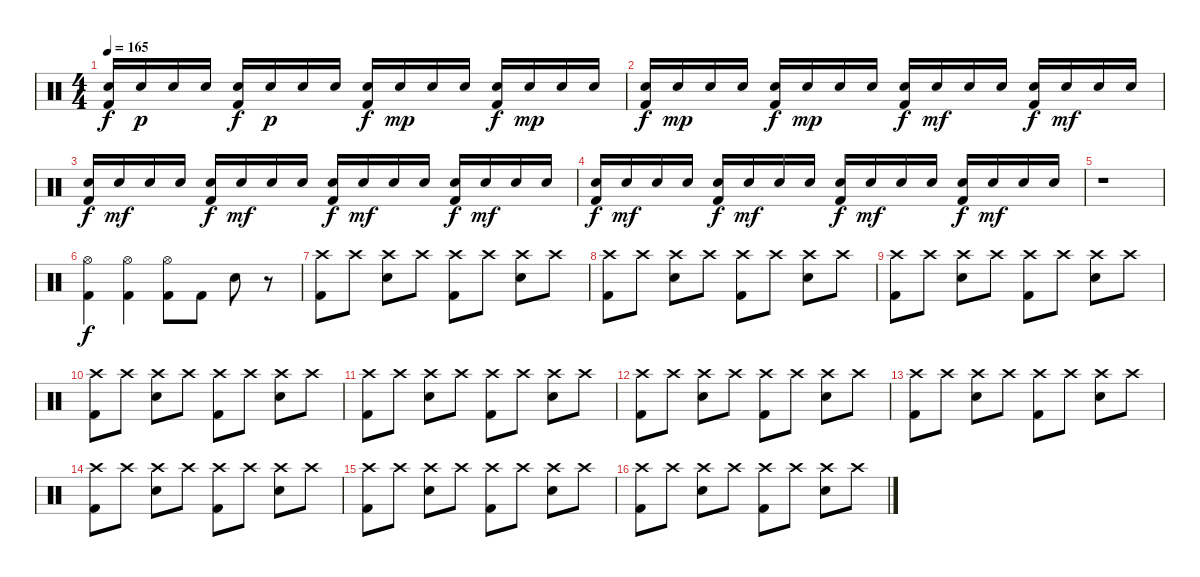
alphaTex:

\track "" {instrument percussion}
\staff {score}
\articulation defaults
\ts (4 4)
\tempo 165
\clef neutral
\ks c
("Electric Snare (hit)" "Kick (hit) 2").16{dy f} "Electric Snare (hit)".16{dy p} "Electric Snare (hit)".16 "Electric Snare (hit)".16 ("Electric Snare (hit)" "Kick (hit) 2").16{dy f} "Electric Snare (hit)".16{dy p} "Electric Snare (hit)".16 "Electric Snare (hit)".16 ("Electric Snare (hit)" "Kick (hit) 2").16{dy f} "Electric Snare (hit)".16{dy mp} "Electric Snare (hit)".16 "Electric Snare (hit)".16 ("Electric Snare (hit)" "Kick (hit) 2").16{dy f} "Electric Snare (hit)".16{dy mp} "Electric Snare (hit)".16 "Electric Snare (hit)".16 |
("Electric Snare (hit)" "Kick (hit) 2").16{dy f} "Electric Snare (hit)".16{dy mp} "Electric Snare (hit)".16 "Electric Snare (hit)".16 ("Electric Snare (hit)" "Kick (hit) 2").16{dy f} "Electric Snare (hit)".16{dy mp} "Electric Snare (hit)".16 "Electric Snare (hit)".16 ("Electric Snare (hit)" "Kick (hit) 2").16{dy f} "Electric Snare (hit)".16{dy mf} "Electric Snare (hit)".16 "Electric Snare (hit)".16 ("Electric Snare (hit)" "Kick (hit) 2").16{dy f} "Electric Snare (hit)".16{dy mf} "Electric Snare (hit)".16 "Electric Snare (hit)".16 |
("Electric Snare (hit)" "Kick (hit) 2").16{dy f} "Electric Snare (hit)".16{dy mf} "Electric Snare (hit)".16 "Electric Snare (hit)".16 ("Electric Snare (hit)" "Kick (hit) 2").16{dy f} "Electric Snare (hit)".16{dy mf} "Electric Snare (hit)".16 "Electric Snare (hit)".16 ("Electric Snare (hit)" "Kick (hit) 2").16{dy f} "Electric Snare (hit)".16{dy mf} "Electric Snare (hit)".16 "Electric Snare (hit)".16 ("Electric Snare (hit)" "Kick (hit) 2").16{dy f} "Electric Snare (hit)".16{dy mf} "Electric Snare (hit)".16 "Electric Snare (hit)".16 |
("Electric Snare (hit)" "Kick (hit) 2").16{dy f} "Electric Snare (hit)".16{dy mf} "Electric Snare (hit)".16 "Electric Snare (hit)".16 ("Electric Snare (hit)" "Kick (hit) 2").16{dy f} "Electric Snare (hit)".16{dy mf} "Electric Snare (hit)".16 "Electric Snare (hit)".16 ("Electric Snare (hit)" "Kick (hit) 2").16{dy f} "Electric Snare (hit)".16{dy mf} "Electric Snare (hit)".16 "Electric Snare (hit)".16 ("Electric Snare (hit)" "Kick (hit) 2").16{dy f} "Electric Snare (hit)".16{dy mf} "Electric Snare (hit)".16 "Electric Snare (hit)".16 |
r.1 |
("Hi-Hat (open)" "Kick (hit) 2").4{dy f} ("Hi-Hat (open)" "Kick (hit) 2").4 ("Hi-Hat (open)" "Kick (hit) 2").8 "Kick (hit) 2".8 "Electric Snare (hit)".8 r.8 |
("Crash high (hit)" "Kick (hit) 2").8 "Crash high (hit)".8 ("Crash high (hit)" "Electric Snare (hit)").8 "Crash high (hit)".8 ("Crash high (hit)" "Kick (hit) 2").8 "Crash high (hit)".8 ("Crash high (hit)" "Electric Snare (hit)").8 "Crash high (hit)".8 |
("Crash high (hit)" "Kick (hit) 2").8 "Crash high (hit)".8 ("Crash high (hit)" "Electric Snare (hit)").8 "Crash high (hit)".8 ("Crash high (hit)" "Kick (hit) 2").8 "Crash high (hit)".8 ("Crash high (hit)" "Electric Snare (hit)").8 "Crash high (hit)".8 |
("Crash high (hit)" "Kick (hit) 2").8 "Crash high (hit)".8 ("Crash high (hit)" "Electric Snare (hit)").8 "Crash high (hit)".8 ("Crash high (hit)" "Kick (hit) 2").8 "Crash high (hit)".8 ("Crash high (hit)" "Electric Snare (hit)").8 "Crash high (hit)".8 |
("Crash high (hit)" "Kick (hit) 2").8 "Crash high (hit)".8 ("Crash high (hit)" "Electric Snare (hit)").8 "Crash high (hit)".8 ("Crash high (hit)" "Kick (hit) 2").8 "Crash high (hit)".8 ("Crash high (hit)" "Electric Snare (hit)").8 "Crash high (hit)".8 |
("Crash high (hit)" "Kick (hit) 2").8 "Crash high (hit)".8 ("Crash high (hit)" "Electric Snare (hit)").8 "Crash high (hit)".8 ("Crash high (hit)" "Kick (hit) 2").8 "Crash high (hit)".8 ("Crash high (hit)" "Electric Snare (hit)").8 "Crash high (hit)".8 |
("Crash high (hit)" "Kick (hit) 2").8 "Crash high (hit)".8 ("Crash high (hit)" "Electric Snare (hit)").8 "Crash high (hit)".8 ("Crash high (hit)" "Kick (hit) 2").8 "Crash high (hit)".8 ("Crash high (hit)" "Electric Snare (hit)").8 "Crash high (hit)".8 |
("Crash high (hit)" "Kick (hit) 2").8 "Crash high (hit)".8 ("Crash high (hit)" "Electric Snare (hit)").8 "Crash high (hit)".8 ("Crash high (hit)" "Kick (hit) 2").8 "Crash high (hit)".8 ("Crash high (hit)" "Electric Snare (hit)").8 "Crash high (hit)".8 |
("Crash high (hit)" "Kick (hit) 2").8 "Crash high (hit)".8 ("Crash high (hit)" "Electric Snare (hit)").8 "Crash high (hit)".8 ("Crash high (hit)" "Kick (hit) 2").8 "Crash high (hit)".8 ("Crash high (hit)" "Electric Snare (hit)").8 "Crash high (hit)".8 |
("Crash high (hit)" "Kick (hit) 2").8 "Crash high (hit)".8 ("Crash high (hit)" "Electric Snare (hit)").8 "Crash high (hit)".8 ("Crash high (hit)" "Kick (hit) 2").8 "Crash high (hit)".8 ("Crash high (hit)" "Electric Snare (hit)").8 "Crash high (hit)".8 |
("Crash high (hit)" "Kick (hit) 2").8 "Crash high (hit)".8 ("Crash high (hit)" "Electric Snare (hit)").8 "Crash high (hit)".8 ("Crash high (hit)" "Kick (hit) 2").8 "Crash high (hit)".8 ("Crash high (hit)" "Electric Snare (hit)").8 "Crash high (hit)".8
